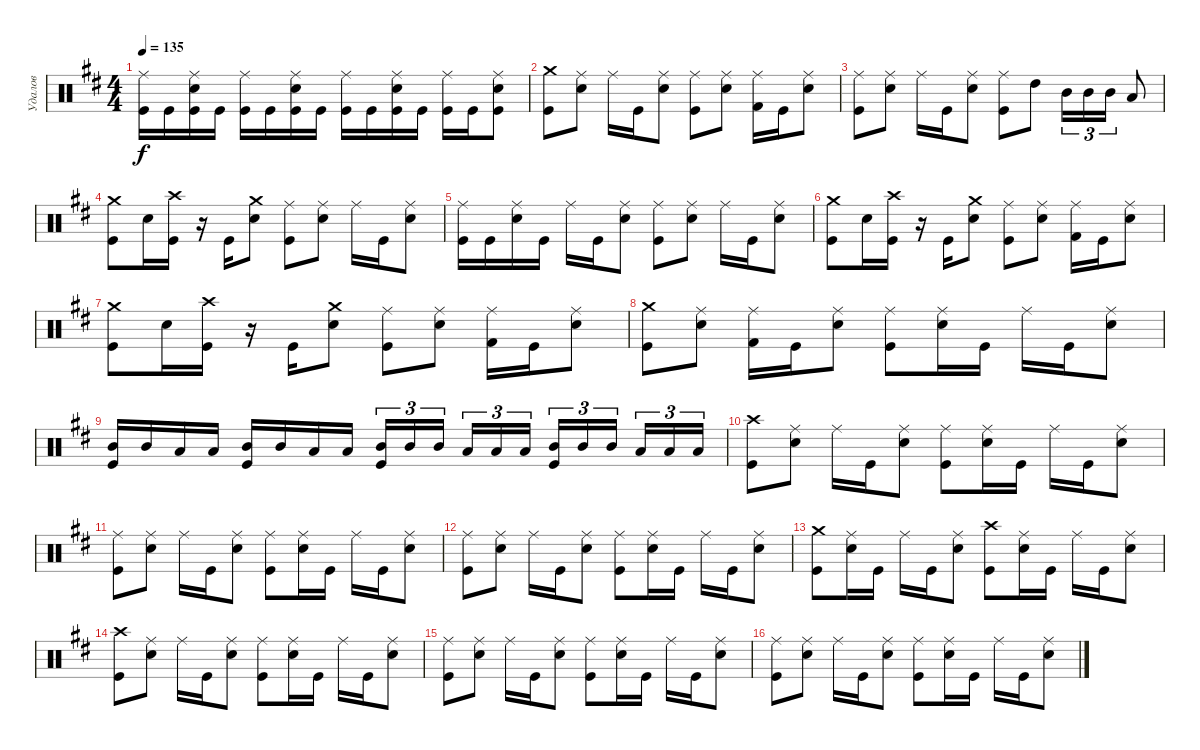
\track ("Удалов" "Удалов") {instrument percussion}
\staff {score}
\articulation defaults
\ts (4 4)
\tempo 135
\clef neutral
\ks d
("Kick (hit)" "Ride (middle)").16{dy f} "Kick (hit)".16 ("Kick (hit)" "Ride (middle)" "Electric Snare (hit)").16 "Kick (hit)".16 ("Kick (hit)" "Ride (middle)").16 "Kick (hit)".16 ("Kick (hit)" "Ride (middle)" "Electric Snare (hit)").16 "Kick (hit)".16 ("Kick (hit)" "Ride (middle)").16 "Kick (hit)".16 ("Kick (hit)" "Ride (middle)" "Electric Snare (hit)").16 "Kick (hit)".16 ("Kick (hit)" "Ride (middle)").16 "Kick (hit)".16 ("Kick (hit)" "Ride (middle)" "Electric Snare (hit)").8 |
("Kick (hit)" "Crash medium (hit)").8 ("Electric Snare (hit)" "Ride (middle)").8 "Ride (middle)".16 "Kick (hit)".16 ("Electric Snare (hit)" "Ride (middle)").8 ("Kick (hit)" "Ride (middle)").8 ("Ride (middle)" "Electric Snare (hit)").8 ("Kick (hit) 2" "Ride (middle)").16 "Kick (hit)".16 ("Electric Snare (hit)" "Ride (middle)").8 |
("Kick (hit)" "Ride (middle)").8 ("Electric Snare (hit)" "Ride (middle)").8 "Ride (middle)".16 "Kick (hit)".16 ("Electric Snare (hit)" "Ride (middle)").8 ("Kick (hit)" "Ride (middle)").8 "High Tom (hit)".8 "Mid Tom (hit)".16{tu (3 2)} "Mid Tom (hit)".16{tu (3 2)} "Mid Tom (hit)".16{tu (3 2)} "Low Tom (hit)".8 |
("Kick (hit)" "Crash medium (hit)").8 "Electric Snare (hit)".16 ("Kick (hit)" "Crash high (hit)").16 r.16 "Kick (hit)".16 ("Electric Snare (hit)" "Crash medium (hit)").8 ("Kick (hit)" "Ride (middle)").8 ("Ride (middle)" "Electric Snare (hit)").8 "Ride (middle)".16 "Kick (hit)".16 ("Electric Snare (hit)" "Ride (middle)").8 |
("Kick (hit)" "Ride (middle)").16 "Kick (hit)".16 ("Electric Snare (hit)" "Ride (middle)").16 "Kick (hit)".16 "Ride (middle)".16 "Kick (hit)".16 ("Electric Snare (hit)" "Ride (middle)").8 ("Kick (hit)" "Ride (middle)").8 ("Ride (middle)" "Electric Snare (hit)").8 "Ride (middle)".16 "Kick (hit)".16 ("Electric Snare (hit)" "Ride (middle)").8 |
("Kick (hit)" "Crash medium (hit)").8 "Electric Snare (hit)".16 ("Kick (hit)" "Crash high (hit)").16 r.16 "Kick (hit)".16 ("Electric Snare (hit)" "Crash medium (hit)").8 ("Kick (hit)" "Ride (middle)").8 ("Ride (middle)" "Electric Snare (hit)").8 ("Kick (hit) 2" "Ride (middle)").16 "Kick (hit)".16 ("Electric Snare (hit)" "Ride (middle)").8 |
("Kick (hit)" "Crash medium (hit)").8 "Electric Snare (hit)".16 ("Kick (hit)" "Crash high (hit)").16 r.16 "Kick (hit)".16 ("Electric Snare (hit)" "Crash medium (hit)").8 ("Kick (hit)" "Ride (middle)").8 ("Ride (middle)" "Electric Snare (hit)").8 ("Kick (hit) 2" "Ride (middle)").16 "Kick (hit)".16 ("Electric Snare (hit)" "Ride (middle)").8 |
("Kick (hit)" "Crash medium (hit)").8 ("Ride (middle)" "Electric Snare (hit)").8 ("Kick (hit) 2" "Ride (middle)").16 "Kick (hit)".16 ("Electric Snare (hit)" "Ride (middle)").8 ("Ride (middle)" "Kick (hit)").8 ("Ride (middle)" "Electric Snare (hit)").16 "Kick (hit)".16 "Ride (middle)".16 "Kick (hit)".16 ("Electric Snare (hit)" "Ride (middle)").8 |
("Kick (hit)" "Mid Tom (hit)").16 "Mid Tom (hit)".16 "Low Tom (hit)".16 "Low Tom (hit)".16 ("Mid Tom (hit)" "Kick (hit)").16 "Mid Tom (hit)".16 "Low Tom (hit)".16 "Low Tom (hit)".16 ("Mid Tom (hit)" "Kick (hit)").16{tu (3 2)} "Mid Tom (hit)".16{tu (3 2)} "Mid Tom (hit)".16{tu (3 2) beam splitsecondary} "Low Tom (hit)".16{tu (3 2)} "Low Tom (hit)".16{tu (3 2)} "Low Tom (hit)".16{tu (3 2)} ("Mid Tom (hit)" "Kick (hit)").16{tu (3 2)} "Mid Tom (hit)".16{tu (3 2)} "Mid Tom (hit)".16{tu (3 2) beam splitsecondary} "Low Tom (hit)".16{tu (3 2)} "Low Tom (hit)".16{tu (3 2)} "Low Tom (hit)".16{tu (3 2)} |
("Kick (hit)" "Crash high (hit)").8 ("Electric Snare (hit)" "Ride (middle)").8 "Ride (middle)".16 "Kick (hit)".16 ("Electric Snare (hit)" "Ride (middle)").8 ("Ride (middle)" "Kick (hit)").8 ("Ride (middle)" "Electric Snare (hit)").16 "Kick (hit)".16 "Ride (middle)".16 "Kick (hit)".16 ("Electric Snare (hit)" "Ride (middle)").8 |
("Kick (hit)" "Ride (middle)").8 ("Electric Snare (hit)" "Ride (middle)").8 "Ride (middle)".16 "Kick (hit)".16 ("Electric Snare (hit)" "Ride (middle)").8 ("Ride (middle)" "Kick (hit)").8 ("Ride (middle)" "Electric Snare (hit)").16 "Kick (hit)".16 "Ride (middle)".16 "Kick (hit)".16 ("Electric Snare (hit)" "Ride (middle)").8 |
("Kick (hit)" "Ride (middle)").8 ("Electric Snare (hit)" "Ride (middle)").8 "Ride (middle)".16 "Kick (hit)".16 ("Electric Snare (hit)" "Ride (middle)").8 ("Ride (middle)" "Kick (hit)").8 ("Ride (middle)" "Electric Snare (hit)").16 "Kick (hit)".16 "Ride (middle)".16 "Kick (hit)".16 ("Electric Snare (hit)" "Ride (middle)").8 |
("Crash medium (hit)" "Kick (hit)").8 ("Ride (middle)" "Electric Snare (hit)").16 "Kick (hit)".16 "Ride (middle)".16 "Kick (hit)".16 ("Electric Snare (hit)" "Ride (middle)").8 ("Crash high (hit)" "Kick (hit)").8 ("Ride (middle)" "Electric Snare (hit)").16 "Kick (hit)".16 "Ride (middle)".16 "Kick (hit)".16 ("Electric Snare (hit)" "Ride (middle)").8 |
("Kick (hit)" "Crash high (hit)").8 ("Electric Snare (hit)" "Ride (middle)").8 "Ride (middle)".16 "Kick (hit)".16 ("Electric Snare (hit)" "Ride (middle)").8 ("Ride (middle)" "Kick (hit)").8 ("Ride (middle)" "Electric Snare (hit)").16 "Kick (hit)".16 "Ride (middle)".16 "Kick (hit)".16 ("Electric Snare (hit)" "Ride (middle)").8 |
("Kick (hit)" "Ride (middle)").8 ("Electric Snare (hit)" "Ride (middle)").8 "Ride (middle)".16 "Kick (hit)".16 ("Electric Snare (hit)" "Ride (middle)").8 ("Ride (middle)" "Kick (hit)").8 ("Ride (middle)" "Electric Snare (hit)").16 "Kick (hit)".16 "Ride (middle)".16 "Kick (hit)".16 ("Electric Snare (hit)" "Ride (middle)").8 |
("Kick (hit)" "Ride (middle)").8 ("Electric Snare (hit)" "Ride (middle)").8 "Ride (middle)".16 "Kick (hit)".16 ("Electric Snare (hit)" "Ride (middle)").8 ("Ride (middle)" "Kick (hit)").8 ("Ride (middle)" "Electric Snare (hit)").16 "Kick (hit)".16 "Ride (middle)".16 "Kick (hit)".16 ("Electric Snare (hit)" "Ride (middle)").8
